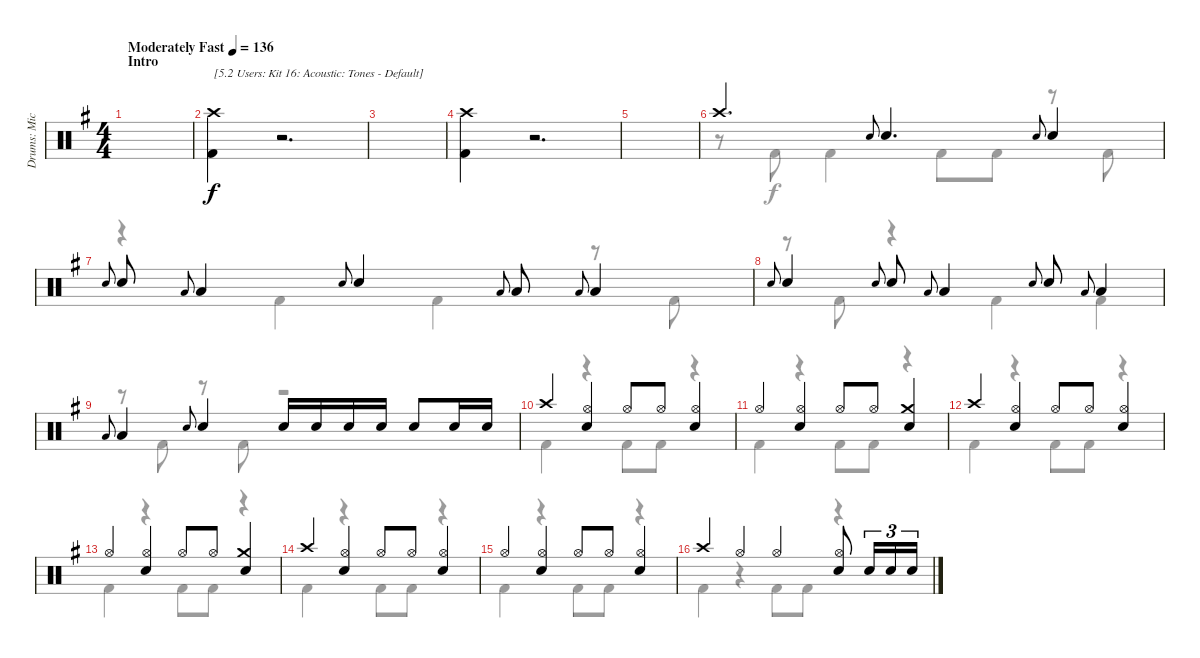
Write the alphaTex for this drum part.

\track ("Drums: Mick" "Drums: Mic") {instrument percussion}
\staff {score}
\articulation defaults
\voice
\ts (4 4)
\section ("" "Intro")
\tempo (136 "Moderately Fast")
\clef neutral
\ks g
|
("Crash high (hit)" "Kick (hit) 2").4{txt "[5.2 Users: Kit 16: Acoustic: Tones - Default]"} r.2{d} |
|
("Crash high (hit)" "Kick (hit) 2").4 r.2{d} |
|
"Crash high (hit)".4{d} "Electric Snare (hit)".8{gr onbeat} "Snare (hit) 2".4{d} "Electric Snare (hit)".8{gr onbeat} "Snare (hit) 2".4 |
"Electric Snare (hit)".8{gr onbeat} "Snare (hit) 2".8 "Low Tom (hit)".8{gr onbeat} "Low Tom (hit)".4 "Electric Snare (hit)".8{gr onbeat} "Snare (hit) 2".4 "Low Tom (hit)".8{gr onbeat} "Low Tom (hit)".8 "Low Tom (hit)".8{gr onbeat} "Low Tom (hit)".4 |
"Electric Snare (hit)".8{gr onbeat} "Snare (hit) 2".4 "Electric Snare (hit)".8{gr onbeat} "Snare (hit) 2".8 "Low Tom (hit)".8{gr onbeat} "Low Tom (hit)".4 "Electric Snare (hit)".8{gr onbeat} "Snare (hit) 2".8 "Low Tom (hit)".8{gr onbeat} "Low Tom (hit)".4 |
"Low Tom (hit)".8{gr onbeat} "Low Tom (hit)".4 "Electric Snare (hit)".8{gr onbeat} "Snare (hit) 2".4 "Snare (hit) 2".16 "Snare (hit) 2".16 "Snare (hit) 2".16 "Snare (hit) 2".16 "Snare (hit) 2".8 "Snare (hit) 2".16 "Snare (hit) 2".16 |
"Crash high (hit)".4 ("Hi-Hat (open)" "Snare (hit) 2").4 "Hi-Hat (open)".8 "Hi-Hat (open)".8 ("Hi-Hat (open)" "Snare (hit) 2").4 |
"Hi-Hat (open)".4 ("Hi-Hat (open)" "Snare (hit) 2").4 "Hi-Hat (open)".8 "Hi-Hat (open)".8 ("Crash medium (hit)" "Snare (hit) 2").4 |
"Crash high (hit)".4 ("Hi-Hat (open)" "Snare (hit) 2").4 "Hi-Hat (open)".8 "Hi-Hat (open)".8 ("Hi-Hat (open)" "Snare (hit) 2").4 |
"Hi-Hat (open)".4 ("Hi-Hat (open)" "Snare (hit) 2").4 "Hi-Hat (open)".8 "Hi-Hat (open)".8 ("Crash medium (hit)" "Snare (hit) 2").4 |
"Crash high (hit)".4 ("Hi-Hat (open)" "Snare (hit) 2").4 "Hi-Hat (open)".8 "Hi-Hat (open)".8 ("Hi-Hat (open)" "Snare (hit) 2").4 |
"Hi-Hat (open)".4 ("Hi-Hat (open)" "Snare (hit) 2").4 "Hi-Hat (open)".8 "Hi-Hat (open)".8 ("Hi-Hat (open)" "Snare (hit) 2").4 |
"Crash high (hit)".4 "Hi-Hat (open)".4 "Hi-Hat (open)".4 ("Hi-Hat (open)" "Snare (hit) 2").8 "Snare (hit) 2".16{tu (3 2)} "Snare (hit) 2".16{tu (3 2)} "Snare (hit) 2".16{tu (3 2)}
\voice
\clef neutral
\ottava regular
\simile none
\ks g
|
|
|
|
|
r.8 "Kick (hit) 2".8 "Kick (hit) 2".4 "Kick (hit) 2".8 "Kick (hit) 2".8 r.8 "Kick (hit) 2".8 |
r.4 "Kick (hit) 2".4 "Kick (hit) 2".4 r.8 "Kick (hit) 2".8 |
r.8 "Kick (hit) 2".8 r.4 "Kick (hit) 2".4 "Kick (hit) 2".4 |
r.8 "Kick (hit) 2".8 r.8 "Kick (hit) 2".8 r.2 |
"Kick (hit) 2".4 r.4 "Kick (hit) 2".8 "Kick (hit) 2".8 r.4 |
"Kick (hit) 2".4 r.4 "Kick (hit) 2".8 "Kick (hit) 2".8 r.4 |
"Kick (hit) 2".4 r.4 "Kick (hit) 2".8 "Kick (hit) 2".8 r.4 |
"Kick (hit) 2".4 r.4 "Kick (hit) 2".8 "Kick (hit) 2".8 r.4 |
"Kick (hit) 2".4 r.4 "Kick (hit) 2".8 "Kick (hit) 2".8 r.4 |
"Kick (hit) 2".4 r.4 "Kick (hit) 2".8 "Kick (hit) 2".8 r.4 |
"Kick (hit) 2".4 r.4 "Kick (hit) 2".8 "Kick (hit) 2".8 r.4
